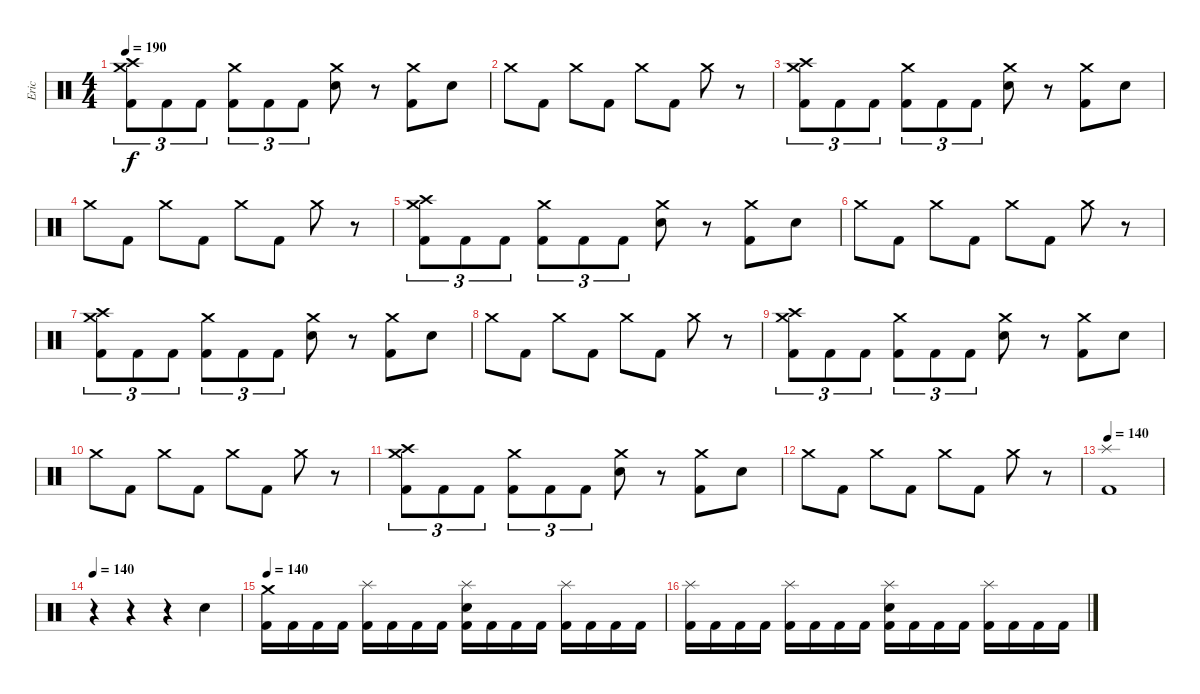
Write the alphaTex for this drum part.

\track ("Eric" "Eric") {instrument percussion}
\staff {score}
\articulation defaults
\ts (4 4)
\tempo 190
\clef neutral
\ks c
("Crash medium (hit)" "Crash high (hit)" "Kick (hit) 2").8{tu (3 2) dy f} "Kick (hit) 2".8{tu (3 2)} "Kick (hit) 2".8{tu (3 2)} ("Crash medium (hit)" "Kick (hit) 2").8{tu (3 2)} "Kick (hit) 2".8{tu (3 2)} "Kick (hit) 2".8{tu (3 2)} ("Crash medium (hit)" "Electric Snare (hit)").8 r.8 ("Crash medium (hit)" "Kick (hit) 2").8 "Electric Snare (hit)".8 |
"Crash medium (hit)".8 "Kick (hit) 2".8 "Crash medium (hit)".8 "Kick (hit) 2".8 "Crash medium (hit)".8 "Kick (hit) 2".8 "Crash medium (hit)".8 r.8 |
("Crash medium (hit)" "Crash high (hit)" "Kick (hit) 2").8{tu (3 2)} "Kick (hit) 2".8{tu (3 2)} "Kick (hit) 2".8{tu (3 2)} ("Crash medium (hit)" "Kick (hit) 2").8{tu (3 2)} "Kick (hit) 2".8{tu (3 2)} "Kick (hit) 2".8{tu (3 2)} ("Crash medium (hit)" "Electric Snare (hit)").8 r.8 ("Crash medium (hit)" "Kick (hit) 2").8 "Electric Snare (hit)".8 |
"Crash medium (hit)".8 "Kick (hit) 2".8 "Crash medium (hit)".8 "Kick (hit) 2".8 "Crash medium (hit)".8 "Kick (hit) 2".8 "Crash medium (hit)".8 r.8 |
("Crash medium (hit)" "Crash high (hit)" "Kick (hit) 2").8{tu (3 2)} "Kick (hit) 2".8{tu (3 2)} "Kick (hit) 2".8{tu (3 2)} ("Crash medium (hit)" "Kick (hit) 2").8{tu (3 2)} "Kick (hit) 2".8{tu (3 2)} "Kick (hit) 2".8{tu (3 2)} ("Crash medium (hit)" "Electric Snare (hit)").8 r.8 ("Crash medium (hit)" "Kick (hit) 2").8 "Electric Snare (hit)".8 |
"Crash medium (hit)".8 "Kick (hit) 2".8 "Crash medium (hit)".8 "Kick (hit) 2".8 "Crash medium (hit)".8 "Kick (hit) 2".8 "Crash medium (hit)".8 r.8 |
("Crash medium (hit)" "Crash high (hit)" "Kick (hit) 2").8{tu (3 2)} "Kick (hit) 2".8{tu (3 2)} "Kick (hit) 2".8{tu (3 2)} ("Crash medium (hit)" "Kick (hit) 2").8{tu (3 2)} "Kick (hit) 2".8{tu (3 2)} "Kick (hit) 2".8{tu (3 2)} ("Crash medium (hit)" "Electric Snare (hit)").8 r.8 ("Crash medium (hit)" "Kick (hit) 2").8 "Electric Snare (hit)".8 |
"Crash medium (hit)".8 "Kick (hit) 2".8 "Crash medium (hit)".8 "Kick (hit) 2".8 "Crash medium (hit)".8 "Kick (hit) 2".8 "Crash medium (hit)".8 r.8 |
("Crash medium (hit)" "Crash high (hit)" "Kick (hit) 2").8{tu (3 2)} "Kick (hit) 2".8{tu (3 2)} "Kick (hit) 2".8{tu (3 2)} ("Crash medium (hit)" "Kick (hit) 2").8{tu (3 2)} "Kick (hit) 2".8{tu (3 2)} "Kick (hit) 2".8{tu (3 2)} ("Crash medium (hit)" "Electric Snare (hit)").8 r.8 ("Crash medium (hit)" "Kick (hit) 2").8 "Electric Snare (hit)".8 |
"Crash medium (hit)".8 "Kick (hit) 2".8 "Crash medium (hit)".8 "Kick (hit) 2".8 "Crash medium (hit)".8 "Kick (hit) 2".8 "Crash medium (hit)".8 r.8 |
("Crash medium (hit)" "Crash high (hit)" "Kick (hit) 2").8{tu (3 2)} "Kick (hit) 2".8{tu (3 2)} "Kick (hit) 2".8{tu (3 2)} ("Crash medium (hit)" "Kick (hit) 2").8{tu (3 2)} "Kick (hit) 2".8{tu (3 2)} "Kick (hit) 2".8{tu (3 2)} ("Crash medium (hit)" "Electric Snare (hit)").8 r.8 ("Crash medium (hit)" "Kick (hit) 2").8 "Electric Snare (hit)".8 |
"Crash medium (hit)".8 "Kick (hit) 2".8 "Crash medium (hit)".8 "Kick (hit) 2".8 "Crash medium (hit)".8 "Kick (hit) 2".8 "Crash medium (hit)".8 r.8 |
\tempo 140
("Splash (hit)" "Kick (hit) 2").1 |
\tempo 140
r.4 r.4 r.4 "Electric Snare (hit)".4 |
\tempo 140
("Crash medium (hit)" "Kick (hit) 2").16 "Kick (hit) 2".16 "Kick (hit) 2".16 "Kick (hit) 2".16 ("Splash (hit)" "Kick (hit) 2").16 "Kick (hit) 2".16 "Kick (hit) 2".16 "Kick (hit) 2".16 ("Splash (hit)" "Electric Snare (hit)" "Kick (hit) 2").16 "Kick (hit) 2".16 "Kick (hit) 2".16 "Kick (hit) 2".16 ("Splash (hit)" "Kick (hit) 2").16 "Kick (hit) 2".16 "Kick (hit) 2".16 "Kick (hit) 2".16 |
("Splash (hit)" "Kick (hit) 2").16 "Kick (hit) 2".16 "Kick (hit) 2".16 "Kick (hit) 2".16 ("Splash (hit)" "Kick (hit) 2").16 "Kick (hit) 2".16 "Kick (hit) 2".16 "Kick (hit) 2".16 ("Splash (hit)" "Electric Snare (hit)" "Kick (hit) 2").16 "Kick (hit) 2".16 "Kick (hit) 2".16 "Kick (hit) 2".16 ("Splash (hit)" "Kick (hit) 2").16 "Kick (hit) 2".16 "Kick (hit) 2".16 "Kick (hit) 2".16
